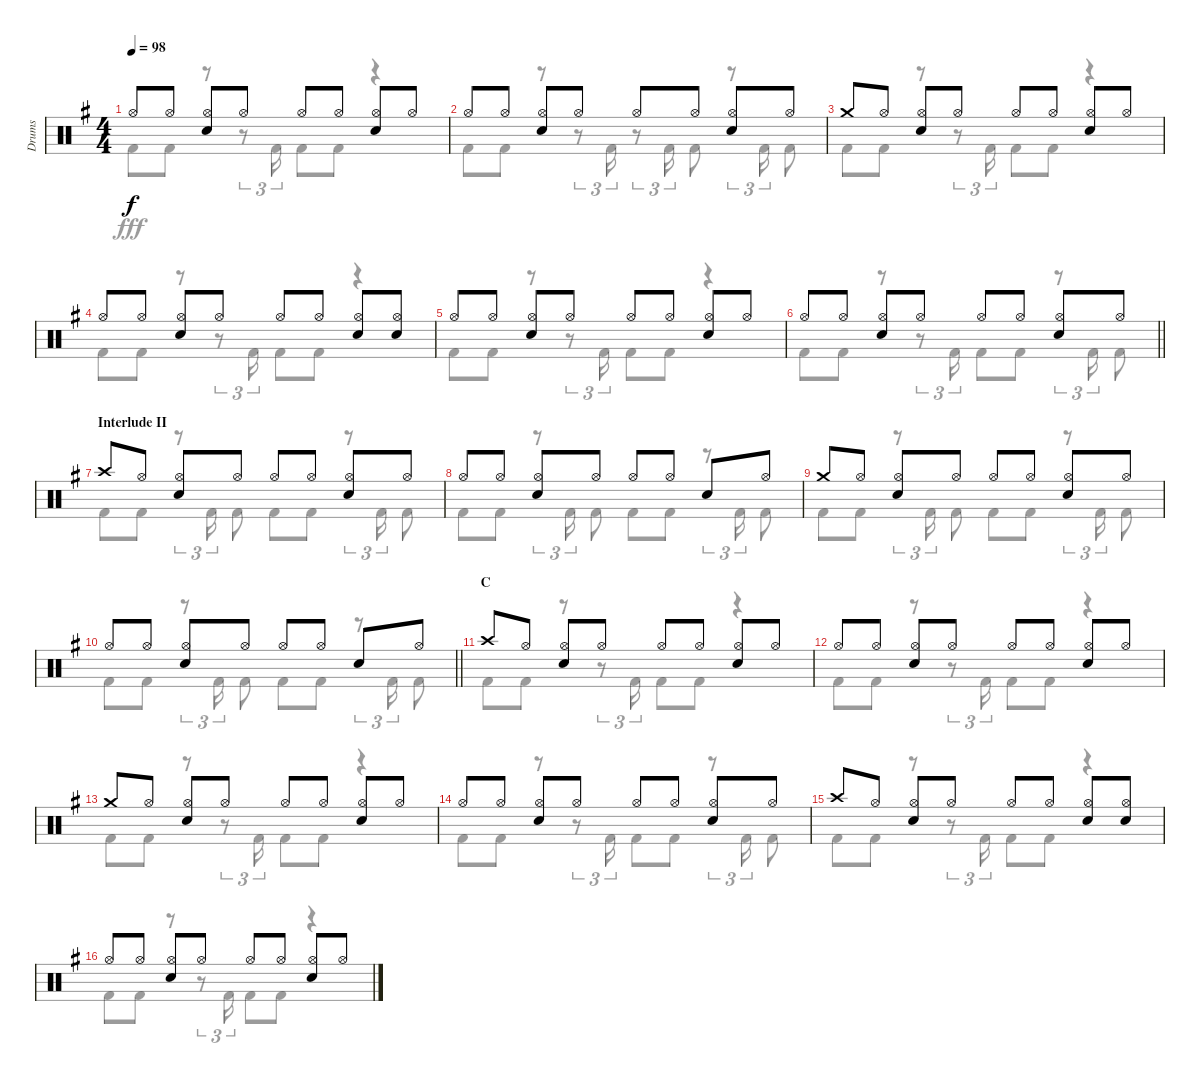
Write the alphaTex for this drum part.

\track ("Drums" "Drums") {instrument percussion}
\staff {score}
\articulation defaults
\voice
\ts (4 4)
\tempo 98
\clef neutral
\ks g "Hi-Hat (open)".8{dy f} "Hi-Hat (open)".8
("Hi-Hat (open)" "Snare (hit) 2").8 "Hi-Hat (open)".8 "Hi-Hat (open)".8 "Hi-Hat (open)".8 ("Hi-Hat (open)" "Snare (hit) 2").8 "Hi-Hat (open)".8 |
"Hi-Hat (open)".8 "Hi-Hat (open)".8 ("Hi-Hat (open)" "Snare (hit) 2").8 "Hi-Hat (open)".8 "Hi-Hat (open)".8 "Hi-Hat (open)".8 ("Hi-Hat (open)" "Snare (hit) 2").8 "Hi-Hat (open)".8 |
"Crash medium (hit)".8 "Hi-Hat (open)".8 ("Hi-Hat (open)" "Snare (hit) 2").8 "Hi-Hat (open)".8 "Hi-Hat (open)".8 "Hi-Hat (open)".8 ("Hi-Hat (open)" "Snare (hit) 2").8 "Hi-Hat (open)".8 |
"Hi-Hat (open)".8 "Hi-Hat (open)".8 ("Hi-Hat (open)" "Snare (hit) 2").8 "Hi-Hat (open)".8 "Hi-Hat (open)".8 "Hi-Hat (open)".8 ("Hi-Hat (open)" "Snare (hit) 2").8 ("Hi-Hat (open)" "Snare (hit) 2").8 |
"Hi-Hat (open)".8 "Hi-Hat (open)".8 ("Hi-Hat (open)" "Snare (hit) 2").8 "Hi-Hat (open)".8 "Hi-Hat (open)".8 "Hi-Hat (open)".8 ("Hi-Hat (open)" "Snare (hit) 2").8 "Hi-Hat (open)".8 |
\barLineRight lightlight "Hi-Hat (open)".8 "Hi-Hat (open)".8
("Hi-Hat (open)" "Snare (hit) 2").8 "Hi-Hat (open)".8 "Hi-Hat (open)".8 "Hi-Hat (open)".8 ("Hi-Hat (open)" "Snare (hit) 2").8 "Hi-Hat (open)".8 |
\section ("" "Interlude II")
"Crash high (hit)".8 "Hi-Hat (open)".8 ("Hi-Hat (open)" "Snare (hit) 2").8 "Hi-Hat (open)".8 "Hi-Hat (open)".8 "Hi-Hat (open)".8 ("Hi-Hat (open)" "Snare (hit) 2").8 "Hi-Hat (open)".8 |
"Hi-Hat (open)".8 "Hi-Hat (open)".8 ("Hi-Hat (open)" "Snare (hit) 2").8 "Hi-Hat (open)".8 "Hi-Hat (open)".8 "Hi-Hat (open)".8 "Snare (hit) 2".8 "Hi-Hat (open)".8 |
"Crash medium (hit)".8 "Hi-Hat (open)".8 ("Hi-Hat (open)" "Snare (hit) 2").8 "Hi-Hat (open)".8 "Hi-Hat (open)".8 "Hi-Hat (open)".8 ("Hi-Hat (open)" "Snare (hit) 2").8 "Hi-Hat (open)".8 |
\barLineRight lightlight "Hi-Hat (open)".8 "Hi-Hat (open)".8
("Hi-Hat (open)" "Snare (hit) 2").8 "Hi-Hat (open)".8 "Hi-Hat (open)".8 "Hi-Hat (open)".8 "Snare (hit) 2".8 "Hi-Hat (open)".8 |
\section ("" "C")
"Crash high (hit)".8 "Hi-Hat (open)".8 ("Hi-Hat (open)" "Snare (hit) 2").8 "Hi-Hat (open)".8 "Hi-Hat (open)".8 "Hi-Hat (open)".8 ("Hi-Hat (open)" "Snare (hit) 2").8 "Hi-Hat (open)".8 |
"Hi-Hat (open)".8 "Hi-Hat (open)".8 ("Hi-Hat (open)" "Snare (hit) 2").8 "Hi-Hat (open)".8 "Hi-Hat (open)".8 "Hi-Hat (open)".8 ("Hi-Hat (open)" "Snare (hit) 2").8 "Hi-Hat (open)".8 |
"Crash medium (hit)".8 "Hi-Hat (open)".8 ("Hi-Hat (open)" "Snare (hit) 2").8 "Hi-Hat (open)".8 "Hi-Hat (open)".8 "Hi-Hat (open)".8 ("Hi-Hat (open)" "Snare (hit) 2").8 "Hi-Hat (open)".8 |
"Hi-Hat (open)".8 "Hi-Hat (open)".8 ("Hi-Hat (open)" "Snare (hit) 2").8 "Hi-Hat (open)".8 "Hi-Hat (open)".8 "Hi-Hat (open)".8 ("Hi-Hat (open)" "Snare (hit) 2").8 "Hi-Hat (open)".8 |
"Crash high (hit)".8 "Hi-Hat (open)".8 ("Hi-Hat (open)" "Snare (hit) 2").8 "Hi-Hat (open)".8 "Hi-Hat (open)".8 "Hi-Hat (open)".8 ("Hi-Hat (open)" "Snare (hit) 2").8 ("Hi-Hat (open)" "Snare (hit) 2").8 |
"Hi-Hat (open)".8 "Hi-Hat (open)".8 ("Hi-Hat (open)" "Snare (hit) 2").8 "Hi-Hat (open)".8 "Hi-Hat (open)".8 "Hi-Hat (open)".8 ("Hi-Hat (open)" "Snare (hit) 2").8 "Hi-Hat (open)".8
\voice
\clef neutral
\ottava regular
\simile none
\ks g "Kick (hit) 2".8{dy fff} "Kick (hit) 2".8
r.8 r.8{tu (3 2)} "Kick (hit) 2".16{tu (3 2)} "Kick (hit) 2".8 "Kick (hit) 2".8 r.4 |
"Kick (hit) 2".8 "Kick (hit) 2".8 r.8 r.8{tu (3 2)} "Kick (hit) 2".16{tu (3 2)} r.8{tu (3 2)} "Kick (hit) 2".16{tu (3 2)} "Kick (hit) 2".8 r.8{tu (3 2)} "Kick (hit) 2".16{tu (3 2)} "Kick (hit) 2".8 |
"Kick (hit) 2".8 "Kick (hit) 2".8 r.8 r.8{tu (3 2)} "Kick (hit) 2".16{tu (3 2)} "Kick (hit) 2".8 "Kick (hit) 2".8 r.4 |
"Kick (hit) 2".8 "Kick (hit) 2".8 r.8 r.8{tu (3 2)} "Kick (hit) 2".16{tu (3 2)} "Kick (hit) 2".8 "Kick (hit) 2".8 r.4 |
"Kick (hit) 2".8 "Kick (hit) 2".8 r.8 r.8{tu (3 2)} "Kick (hit) 2".16{tu (3 2)} "Kick (hit) 2".8 "Kick (hit) 2".8 r.4 |
\barLineRight lightlight "Kick (hit) 2".8 "Kick (hit) 2".8
r.8 r.8{tu (3 2)} "Kick (hit) 2".16{tu (3 2)} "Kick (hit) 2".8 "Kick (hit) 2".8 r.8{tu (3 2)} "Kick (hit) 2".16{tu (3 2)} "Kick (hit) 2".8 |
"Kick (hit) 2".8 "Kick (hit) 2".8 r.8{tu (3 2)} "Kick (hit) 2".16{tu (3 2)} "Kick (hit) 2".8 "Kick (hit) 2".8 "Kick (hit) 2".8 r.8{tu (3 2)} "Kick (hit) 2".16{tu (3 2)} "Kick (hit) 2".8 |
"Kick (hit) 2".8 "Kick (hit) 2".8 r.8{tu (3 2)} "Kick (hit) 2".16{tu (3 2)} "Kick (hit) 2".8 "Kick (hit) 2".8 "Kick (hit) 2".8 r.8{tu (3 2)} "Kick (hit) 2".16{tu (3 2)} "Kick (hit) 2".8 |
"Kick (hit) 2".8 "Kick (hit) 2".8 r.8{tu (3 2)} "Kick (hit) 2".16{tu (3 2)} "Kick (hit) 2".8 "Kick (hit) 2".8 "Kick (hit) 2".8 r.8{tu (3 2)} "Kick (hit) 2".16{tu (3 2)} "Kick (hit) 2".8 |
\barLineRight lightlight "Kick (hit) 2".8 "Kick (hit) 2".8
r.8{tu (3 2)} "Kick (hit) 2".16{tu (3 2)} "Kick (hit) 2".8 "Kick (hit) 2".8 "Kick (hit) 2".8 r.8{tu (3 2)} "Kick (hit) 2".16{tu (3 2)} "Kick (hit) 2".8 |
"Kick (hit) 2".8 "Kick (hit) 2".8 r.8 r.8{tu (3 2)} "Kick (hit) 2".16{tu (3 2)} "Kick (hit) 2".8 "Kick (hit) 2".8 r.4 |
"Kick (hit) 2".8 "Kick (hit) 2".8 r.8 r.8{tu (3 2)} "Kick (hit) 2".16{tu (3 2)} "Kick (hit) 2".8 "Kick (hit) 2".8 r.4 |
"Kick (hit) 2".8 "Kick (hit) 2".8 r.8 r.8{tu (3 2)} "Kick (hit) 2".16{tu (3 2)} "Kick (hit) 2".8 "Kick (hit) 2".8 r.4 |
"Kick (hit) 2".8 "Kick (hit) 2".8 r.8 r.8{tu (3 2)} "Kick (hit) 2".16{tu (3 2)} "Kick (hit) 2".8 "Kick (hit) 2".8 r.8{tu (3 2)} "Kick (hit) 2".16{tu (3 2)} "Kick (hit) 2".8 |
"Kick (hit) 2".8 "Kick (hit) 2".8 r.8 r.8{tu (3 2)} "Kick (hit) 2".16{tu (3 2)} "Kick (hit) 2".8 "Kick (hit) 2".8 r.4 |
"Kick (hit) 2".8 "Kick (hit) 2".8 r.8 r.8{tu (3 2)} "Kick (hit) 2".16{tu (3 2)} "Kick (hit) 2".8 "Kick (hit) 2".8 r.4
